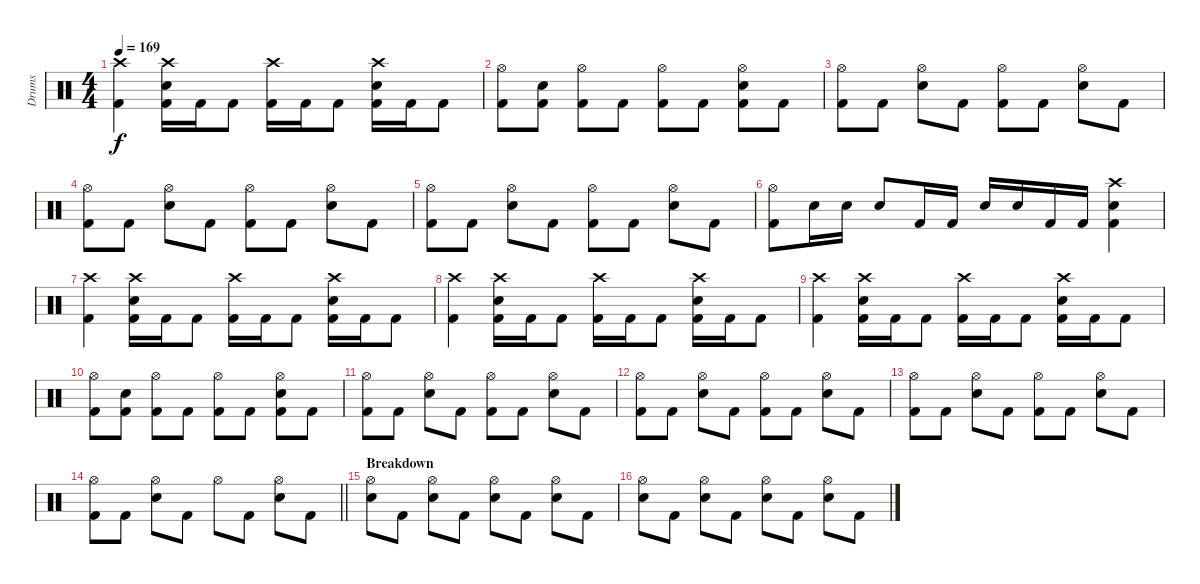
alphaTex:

\track ("Drums" "Drums") {instrument percussion}
\staff {score}
\articulation defaults
\ts (4 4)
\tempo 169
\clef neutral
\ks c
("Crash high (hit)" "Kick (hit) 2").4{dy f} ("Crash high (hit)" "Electric Snare (hit)" "Kick (hit) 2").16 "Kick (hit) 2".16 "Kick (hit) 2".8 ("Crash high (hit)" "Kick (hit) 2").16 "Kick (hit) 2".16 "Kick (hit) 2".8 ("Crash high (hit)" "Electric Snare (hit)" "Kick (hit) 2").16 "Kick (hit) 2".16 "Kick (hit) 2".8 |
("Hi-Hat (open)" "Kick (hit) 2").8 ("Electric Snare (hit)" "Kick (hit) 2").8 ("Hi-Hat (open)" "Kick (hit) 2").8 "Kick (hit) 2".8 ("Hi-Hat (open)" "Kick (hit) 2").8 "Kick (hit) 2".8 ("Hi-Hat (open)" "Electric Snare (hit)" "Kick (hit) 2").8 "Kick (hit) 2".8 |
("Hi-Hat (open)" "Kick (hit) 2").8 "Kick (hit) 2".8 ("Hi-Hat (open)" "Electric Snare (hit)").8 "Kick (hit) 2".8 ("Hi-Hat (open)" "Kick (hit) 2").8 "Kick (hit) 2".8 ("Hi-Hat (open)" "Electric Snare (hit)").8 "Kick (hit) 2".8 |
("Hi-Hat (open)" "Kick (hit) 2").8 "Kick (hit) 2".8 ("Hi-Hat (open)" "Electric Snare (hit)").8 "Kick (hit) 2".8 ("Hi-Hat (open)" "Kick (hit) 2").8 "Kick (hit) 2".8 ("Hi-Hat (open)" "Electric Snare (hit)").8 "Kick (hit) 2".8 |
("Hi-Hat (open)" "Kick (hit) 2").8 "Kick (hit) 2".8 ("Hi-Hat (open)" "Electric Snare (hit)").8 "Kick (hit) 2".8 ("Hi-Hat (open)" "Kick (hit) 2").8 "Kick (hit) 2".8 ("Hi-Hat (open)" "Electric Snare (hit)").8 "Kick (hit) 2".8 |
("Hi-Hat (open)" "Kick (hit) 2").8 "Electric Snare (hit)".16 "Electric Snare (hit)".16 "Electric Snare (hit)".8 "Kick (hit) 2".16 "Kick (hit) 2".16 "Electric Snare (hit)".16 "Electric Snare (hit)".16 "Kick (hit) 2".16 "Kick (hit) 2".16 ("Crash high (hit)" "Electric Snare (hit)" "Kick (hit) 2").4 |
("Crash high (hit)" "Kick (hit) 2").4 ("Crash high (hit)" "Electric Snare (hit)" "Kick (hit) 2").16 "Kick (hit) 2".16 "Kick (hit) 2".8 ("Crash high (hit)" "Kick (hit) 2").16 "Kick (hit) 2".16 "Kick (hit) 2".8 ("Crash high (hit)" "Electric Snare (hit)" "Kick (hit) 2").16 "Kick (hit) 2".16 "Kick (hit) 2".8 |
("Crash high (hit)" "Kick (hit) 2").4 ("Crash high (hit)" "Electric Snare (hit)" "Kick (hit) 2").16 "Kick (hit) 2".16 "Kick (hit) 2".8 ("Crash high (hit)" "Kick (hit) 2").16 "Kick (hit) 2".16 "Kick (hit) 2".8 ("Crash high (hit)" "Electric Snare (hit)" "Kick (hit) 2").16 "Kick (hit) 2".16 "Kick (hit) 2".8 |
("Crash high (hit)" "Kick (hit) 2").4 ("Crash high (hit)" "Electric Snare (hit)" "Kick (hit) 2").16 "Kick (hit) 2".16 "Kick (hit) 2".8 ("Crash high (hit)" "Kick (hit) 2").16 "Kick (hit) 2".16 "Kick (hit) 2".8 ("Crash high (hit)" "Electric Snare (hit)" "Kick (hit) 2").16 "Kick (hit) 2".16 "Kick (hit) 2".8 |
("Hi-Hat (open)" "Kick (hit) 2").8 ("Electric Snare (hit)" "Kick (hit) 2").8 ("Hi-Hat (open)" "Kick (hit) 2").8 "Kick (hit) 2".8 ("Hi-Hat (open)" "Kick (hit) 2").8 "Kick (hit) 2".8 ("Hi-Hat (open)" "Electric Snare (hit)" "Kick (hit) 2").8 "Kick (hit) 2".8 |
("Hi-Hat (open)" "Kick (hit) 2").8 "Kick (hit) 2".8 ("Hi-Hat (open)" "Electric Snare (hit)").8 "Kick (hit) 2".8 ("Hi-Hat (open)" "Kick (hit) 2").8 "Kick (hit) 2".8 ("Hi-Hat (open)" "Electric Snare (hit)").8 "Kick (hit) 2".8 |
("Hi-Hat (open)" "Kick (hit) 2").8 "Kick (hit) 2".8 ("Hi-Hat (open)" "Electric Snare (hit)").8 "Kick (hit) 2".8 ("Hi-Hat (open)" "Kick (hit) 2").8 "Kick (hit) 2".8 ("Hi-Hat (open)" "Electric Snare (hit)").8 "Kick (hit) 2".8 |
("Hi-Hat (open)" "Kick (hit) 2").8 "Kick (hit) 2".8 ("Hi-Hat (open)" "Electric Snare (hit)").8 "Kick (hit) 2".8 ("Hi-Hat (open)" "Kick (hit) 2").8 "Kick (hit) 2".8 ("Hi-Hat (open)" "Electric Snare (hit)").8 "Kick (hit) 2".8 |
\barLineRight lightlight
("Hi-Hat (open)" "Kick (hit) 2").8 "Kick (hit) 2".8 ("Hi-Hat (open)" "Electric Snare (hit)").8 "Kick (hit) 2".8 "Hi-Hat (open)".8 "Kick (hit) 2".8 ("Hi-Hat (open)" "Electric Snare (hit)").8 "Kick (hit) 2".8 |
\section ("" "Breakdown")
("Hi-Hat (open)" "Electric Snare (hit)").8 "Kick (hit) 2".8 ("Hi-Hat (open)" "Electric Snare (hit)").8 "Kick (hit) 2".8 ("Hi-Hat (open)" "Electric Snare (hit)").8 "Kick (hit) 2".8 ("Hi-Hat (open)" "Electric Snare (hit)").8 "Kick (hit) 2".8 |
("Hi-Hat (open)" "Electric Snare (hit)").8 "Kick (hit) 2".8 ("Hi-Hat (open)" "Electric Snare (hit)").8 "Kick (hit) 2".8 ("Hi-Hat (open)" "Electric Snare (hit)").8 "Kick (hit) 2".8 ("Hi-Hat (open)" "Electric Snare (hit)").8 "Kick (hit) 2".8
